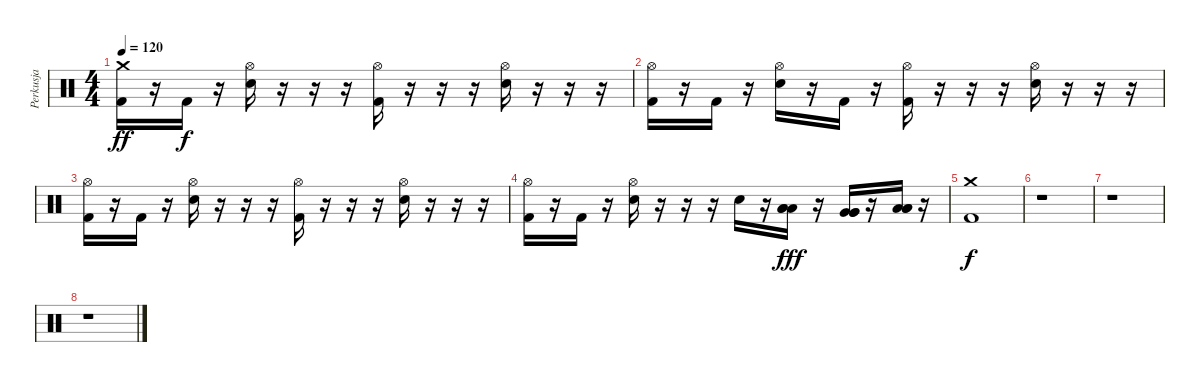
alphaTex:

\track ("Perkusja" "Perkusja") {instrument percussion}
\staff {score}
\articulation defaults
\ts (4 4)
\tempo 120
\clef neutral
\ks c
("Kick (hit) 2" "Crash medium (hit)").16{dy ff} r.16 "Kick (hit) 2".16{dy f} r.16 ("Electric Snare (hit)" "Hi-Hat (open)").16 r.16 r.16 r.16 ("Kick (hit) 2" "Hi-Hat (open)").16 r.16 r.16 r.16 ("Electric Snare (hit)" "Hi-Hat (open)").16 r.16 r.16 r.16 |
("Kick (hit) 2" "Hi-Hat (open)").16 r.16 "Kick (hit) 2".16 r.16 ("Electric Snare (hit)" "Hi-Hat (open)").16 r.16 "Kick (hit) 2".16 r.16 ("Kick (hit) 2" "Hi-Hat (open)").16 r.16 r.16 r.16 ("Electric Snare (hit)" "Hi-Hat (open)").16 r.16 r.16 r.16 |
("Kick (hit) 2" "Hi-Hat (open)").16 r.16 "Kick (hit) 2".16 r.16 ("Electric Snare (hit)" "Hi-Hat (open)").16 r.16 r.16 r.16 ("Kick (hit) 2" "Hi-Hat (open)").16 r.16 r.16 r.16 ("Electric Snare (hit)" "Hi-Hat (open)").16 r.16 r.16 r.16 |
("Kick (hit) 2" "Hi-Hat (open)").16 r.16 "Kick (hit) 2".16 r.16 ("Electric Snare (hit)" "Hi-Hat (open)").16 r.16 r.16 r.16 "Electric Snare (hit)".16 r.16 ("Low Tom (hit)" "Low Tom (hit)" "Low Tom (hit)").16{dy fff} r.16 ("Very Low Tom (hit)" "Very Low Tom (hit)" "Very Low Tom (hit)").16 r.16 ("Low Floor Tom (hit)" "Low Floor Tom (hit)" "Low Floor Tom (hit)").16 r.16 |
("Kick (hit) 2" "Crash medium (hit)").1{dy f} |
r.1 |
r.1 |
r.1
